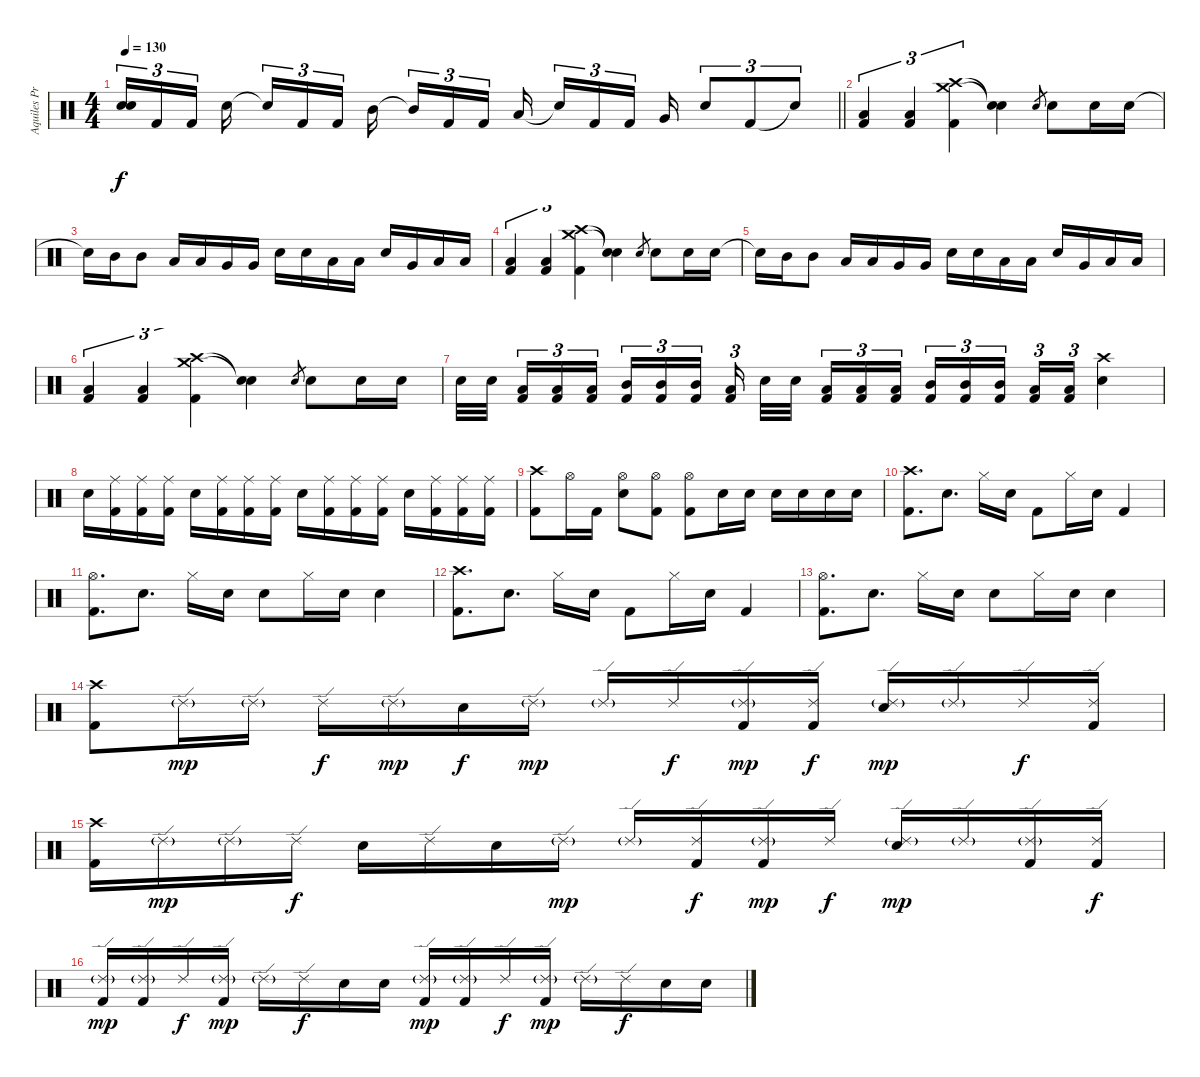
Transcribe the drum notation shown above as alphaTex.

\track ("Aquiles Priester" "Aquiles Pr") {instrument percussion}
\staff {score}
\articulation defaults
\ts (4 4)
\tempo 130
\clef neutral
\barLineRight lightlight
\ks c
("Snare (hit)"{t} "Snare (hit)"{t}).16{tu (3 2) dy f} "Kick (hit) 2".16{tu (3 2)} "Kick (hit) 2".16{tu (3 2) beam splitsecondary} "Electric Snare (hit)".16{beam splitsecondary} "Snare (hit)"{t}.16{tu (3 2)} "Kick (hit) 2".16{tu (3 2)} "Kick (hit) 2".16{tu (3 2) beam splitsecondary} "Mid Tom (hit)".16{beam splitsecondary} "Mid Tom (hit)"{t}.16{tu (3 2)} "Kick (hit) 2".16{tu (3 2)} "Kick (hit) 2".16{tu (3 2)} "Low Tom (hit)".16{beam splitsecondary} "Snare (hit)"{t}.16{tu (3 2)} "Kick (hit) 2".16{tu (3 2)} "Kick (hit) 2".16{tu (3 2) beam splitsecondary} "Very Low Tom (hit)".16 "Electric Snare (hit)".8{tu (3 2)} "Kick (hit) 2".8{tu (3 2)} "Snare (hit)"{t}.8{tu (3 2)} |
("Low Tom (hit)" "Kick (hit) 2").4{tu (3 2)} ("Low Tom (hit)" "Kick (hit) 2").4{tu (3 2)} ("Crash high (hit)" "Crash medium (hit)" "Kick (hit) 2").4{tu (3 2)} ("Snare (hit)"{t} "Snare (hit)"{t}).4 "Electric Snare (hit)".8{gr} "Electric Snare (hit)".8 "Electric Snare (hit)".16 "Electric Snare (hit)".16 |
"Snare (hit)"{t}.16 "Mid Tom (hit)".16 "Mid Tom (hit)".8 "Low Tom (hit)".16 "Low Tom (hit)".16 "Very Low Tom (hit)".16 "Very Low Tom (hit)".16 "Electric Snare (hit)".16 "Electric Snare (hit)".16 "Low Tom (hit)".16 "Low Tom (hit)".16 "Electric Snare (hit)".16 "Very Low Tom (hit)".16 "Low Floor Tom (hit)".16 "Low Floor Tom (hit)".16 |
("Low Tom (hit)" "Kick (hit) 2").4{tu (3 2)} ("Low Tom (hit)" "Kick (hit) 2").4{tu (3 2)} ("Crash high (hit)" "Crash medium (hit)" "Kick (hit) 2").4{tu (3 2)} ("Snare (hit)"{t} "Snare (hit)"{t}).4 "Electric Snare (hit)".8{gr} "Electric Snare (hit)".8 "Electric Snare (hit)".16 "Electric Snare (hit)".16 |
"Snare (hit)"{t}.16 "Mid Tom (hit)".16 "Mid Tom (hit)".8 "Low Tom (hit)".16 "Low Tom (hit)".16 "Very Low Tom (hit)".16 "Very Low Tom (hit)".16 "Electric Snare (hit)".16 "Electric Snare (hit)".16 "Low Tom (hit)".16 "Low Tom (hit)".16 "Electric Snare (hit)".16 "Very Low Tom (hit)".16 "Low Floor Tom (hit)".16 "Low Floor Tom (hit)".16 |
("Low Tom (hit)" "Kick (hit) 2").4{tu (3 2)} ("Low Tom (hit)" "Kick (hit) 2").4{tu (3 2)} ("Crash high (hit)" "Crash medium (hit)" "Kick (hit) 2").4{tu (3 2)} ("Snare (hit)"{t} "Snare (hit)"{t}).4 "Electric Snare (hit)".8{gr} "Electric Snare (hit)".8 "Electric Snare (hit)".16 "Electric Snare (hit)".16 |
"Electric Snare (hit)".32 "Electric Snare (hit)".32{beam splitsecondary} ("Low Tom (hit)" "Kick (hit) 2").16{tu (3 2)} ("Low Tom (hit)" "Kick (hit) 2").16{tu (3 2)} ("Low Tom (hit)" "Kick (hit) 2").16{tu (3 2) beam splitsecondary} ("Mid Tom (hit)" "Kick (hit) 2").16{tu (3 2)} ("Mid Tom (hit)" "Kick (hit) 2").16{tu (3 2)} ("Mid Tom (hit)" "Kick (hit) 2").16{tu (3 2) beam splitsecondary} ("Low Tom (hit)" "Kick (hit) 2").16{tu (3 2) beam splitsecondary} "Electric Snare (hit)".32 "Electric Snare (hit)".32{beam splitsecondary} ("Low Tom (hit)" "Kick (hit) 2").16{tu (3 2)} ("Low Tom (hit)" "Kick (hit) 2").16{tu (3 2)} ("Low Tom (hit)" "Kick (hit) 2").16{tu (3 2) beam splitsecondary} ("Mid Tom (hit)" "Kick (hit) 2").16{tu (3 2)} ("Mid Tom (hit)" "Kick (hit) 2").16{tu (3 2)} ("Mid Tom (hit)" "Kick (hit) 2").16{tu (3 2) beam splitsecondary} ("Low Tom (hit)" "Kick (hit) 2").16{tu (3 2)} ("Low Tom (hit)" "Kick (hit) 2").16{tu (3 2)} ("Crash high (hit)" "Electric Snare (hit)").4 |
"Electric Snare (hit)".16 ("Ride (middle)" "Kick (hit) 2").16 ("Ride (middle)" "Kick (hit) 2").16 ("Ride (middle)" "Kick (hit) 2").16 "Electric Snare (hit)".16 ("Ride (middle)" "Kick (hit) 2").16 ("Ride (middle)" "Kick (hit) 2").16 ("Ride (middle)" "Kick (hit) 2").16 "Electric Snare (hit)".16 ("Ride (middle)" "Kick (hit) 2").16 ("Ride (middle)" "Kick (hit) 2").16 ("Ride (middle)" "Kick (hit) 2").16 "Electric Snare (hit)".16 ("Ride (middle)" "Kick (hit) 2").16 ("Ride (middle)" "Kick (hit) 2").16 ("Ride (middle)" "Kick (hit) 2").16 |
("Crash high (hit)" "Kick (hit) 2").8 "Hi-Hat (open)".16 "Kick (hit) 2".16 ("Hi-Hat (open)" "Electric Snare (hit)").8 ("Hi-Hat (open)" "Kick (hit) 2").8 ("Hi-Hat (open)" "Kick (hit) 2").8 "Electric Snare (hit)".16 "Electric Snare (hit)".16 "Electric Snare (hit)".16 "Electric Snare (hit)".16 "Electric Snare (hit)".16 "Electric Snare (hit)".16 |
("Crash high (hit)" "Kick (hit) 2").8{d} "Electric Snare (hit)".8{d} "Hi-Hat (closed)".16 "Electric Snare (hit)".16 "Kick (hit) 2".8 "Hi-Hat (closed)".16 "Electric Snare (hit)".16 "Kick (hit) 2".4 |
("Hi-Hat (open)" "Kick (hit) 2").8{d} "Electric Snare (hit)".8{d} "Hi-Hat (closed)".16 "Electric Snare (hit)".16 "Electric Snare (hit)".8 "Hi-Hat (closed)".16 "Electric Snare (hit)".16 "Electric Snare (hit)".4 |
("Crash high (hit)" "Kick (hit) 2").8{d} "Electric Snare (hit)".8{d} "Hi-Hat (closed)".16 "Electric Snare (hit)".16 "Kick (hit) 2".8 "Hi-Hat (closed)".16 "Electric Snare (hit)".16 "Kick (hit) 2".4 |
("Hi-Hat (open)" "Kick (hit) 2").8{d} "Electric Snare (hit)".8{d} "Hi-Hat (closed)".16 "Electric Snare (hit)".16 "Electric Snare (hit)".8 "Hi-Hat (closed)".16 "Electric Snare (hit)".16 "Electric Snare (hit)".4 |
("Crash high (hit)" "Kick (hit) 2").8 "Ride (edge) 2"{g}.16{dy mp} "Ride (edge) 2"{g}.16 "Ride (edge) 2".16{dy f} "Ride (edge) 2"{g}.16{dy mp} "Electric Snare (hit)".16{dy f} "Ride (edge) 2"{g}.16{dy mp} "Ride (edge) 2"{g}.16 "Ride (edge) 2".16{dy f} ("Ride (edge) 2"{g} "Kick (hit) 2").16{dy mp} ("Ride (edge) 2" "Kick (hit) 2").16{dy f} ("Ride (edge) 2"{g} "Electric Snare (hit)").16{dy mp} "Ride (edge) 2"{g}.16 "Ride (edge) 2".16{dy f} ("Ride (edge) 2" "Kick (hit) 2").16 |
("Crash high (hit)" "Kick (hit) 2").16 "Ride (edge) 2"{g}.16{dy mp} "Ride (edge) 2"{g}.16 "Ride (edge) 2".16{dy f} "Electric Snare (hit)".16 "Ride (edge) 2".16 "Electric Snare (hit)".16 "Ride (edge) 2"{g}.16{dy mp} "Ride (edge) 2"{g}.16 ("Ride (edge) 2" "Kick (hit) 2").16{dy f} ("Ride (edge) 2"{g} "Kick (hit) 2").16{dy mp} "Ride (edge) 2".16{dy f} ("Ride (edge) 2"{g} "Electric Snare (hit)").16{dy mp} "Ride (edge) 2"{g}.16 ("Ride (edge) 2"{g} "Kick (hit) 2").16 ("Ride (edge) 2" "Kick (hit) 2").16{dy f} |
("Ride (edge) 2"{g} "Kick (hit) 2").16{dy mp} ("Ride (edge) 2"{g} "Kick (hit) 2").16 "Ride (edge) 2".16{dy f} ("Ride (edge) 2"{g} "Kick (hit) 2").16{dy mp} "Ride (edge) 2"{g}.16 "Ride (edge) 2".16{dy f} "Electric Snare (hit)".16 "Electric Snare (hit)".16 ("Ride (edge) 2"{g} "Kick (hit) 2").16{dy mp} ("Ride (edge) 2"{g} "Kick (hit) 2").16 "Ride (edge) 2".16{dy f} ("Ride (edge) 2"{g} "Kick (hit) 2").16{dy mp} "Ride (edge) 2"{g}.16 "Ride (edge) 2".16{dy f} "Electric Snare (hit)".16 "Electric Snare (hit)".16
